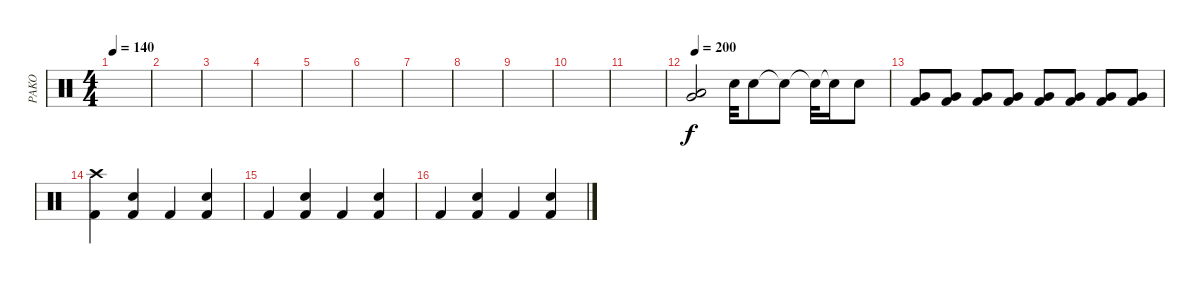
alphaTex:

\track ("PAKO" "PAKO") {instrument percussion}
\staff {score}
\articulation defaults
\ts (4 4)
\tempo 140
\clef neutral
\ks c
|
|
|
|
|
|
|
|
|
|
|
\tempo 200
("Low Floor Tom (hit)" "Very Low Tom (hit)").2 "Snare (hit) 2".32 "Electric Snare (hit)".8 "Electric Snare (hit)"{t}.8 "Electric Snare (hit)"{t}.32 "Electric Snare (hit)"{t}.16 "Electric Snare (hit)".8 |
("Very Low Tom (hit)" "Kick (hit) 2").8 ("Very Low Tom (hit)" "Kick (hit) 2").8 ("Very Low Tom (hit)" "Kick (hit) 2").8 ("Very Low Tom (hit)" "Kick (hit) 2").8 ("Very Low Tom (hit)" "Kick (hit) 2").8 ("Very Low Tom (hit)" "Kick (hit) 2").8 ("Very Low Tom (hit)" "Kick (hit) 2").8 ("Very Low Tom (hit)" "Kick (hit) 2").8 |
("Kick (hit) 2" "Crash high (hit)").4 ("Electric Snare (hit)" "Kick (hit) 2").4 "Kick (hit) 2".4 ("Electric Snare (hit)" "Kick (hit) 2").4 |
"Kick (hit) 2".4 ("Electric Snare (hit)" "Kick (hit) 2").4 "Kick (hit) 2".4 ("Electric Snare (hit)" "Kick (hit) 2").4 |
"Kick (hit) 2".4 ("Electric Snare (hit)" "Kick (hit) 2").4 "Kick (hit) 2".4 ("Electric Snare (hit)" "Kick (hit) 2").4
